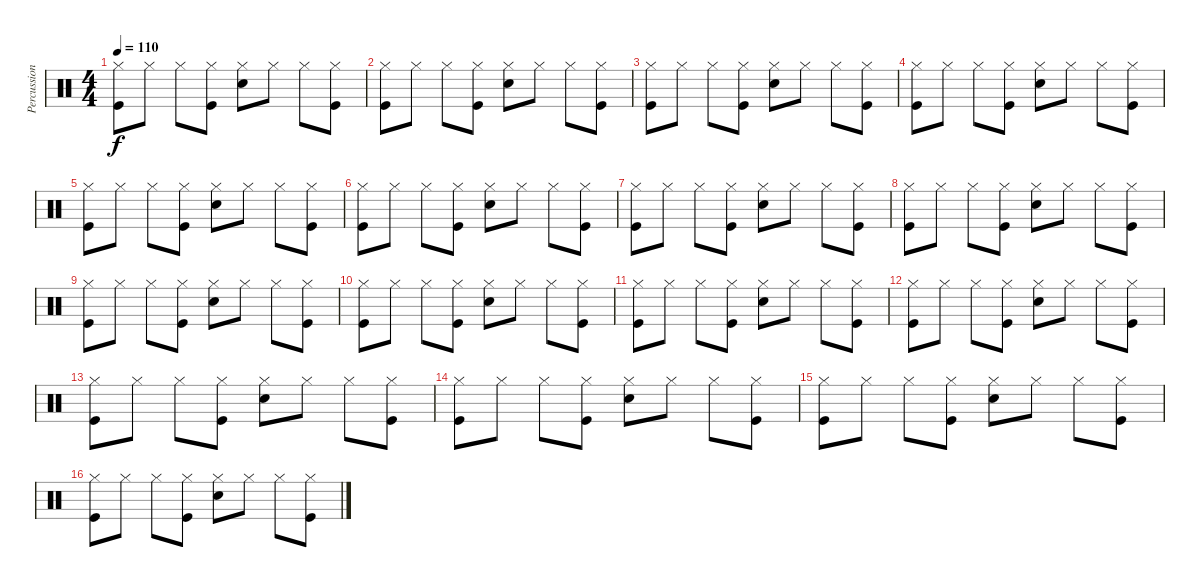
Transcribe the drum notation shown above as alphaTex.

\track ("Percussion" "Percussion") {instrument percussion}
\staff {score}
\articulation defaults
\ts (4 4)
\tempo 110
\clef neutral
\ks c
("Hi-Hat (closed)" "Kick (hit)").8{dy f} "Hi-Hat (closed)".8 "Hi-Hat (closed)".8 ("Hi-Hat (closed)" "Kick (hit)").8 ("Hi-Hat (closed)" "Snare (hit) 2").8 "Hi-Hat (closed)".8 "Hi-Hat (closed)".8 ("Hi-Hat (closed)" "Kick (hit)").8 |
("Hi-Hat (closed)" "Kick (hit)").8 "Hi-Hat (closed)".8 "Hi-Hat (closed)".8 ("Hi-Hat (closed)" "Kick (hit)").8 ("Hi-Hat (closed)" "Snare (hit) 2").8 "Hi-Hat (closed)".8 "Hi-Hat (closed)".8 ("Hi-Hat (closed)" "Kick (hit)").8 |
("Hi-Hat (closed)" "Kick (hit)").8 "Hi-Hat (closed)".8 "Hi-Hat (closed)".8 ("Hi-Hat (closed)" "Kick (hit)").8 ("Hi-Hat (closed)" "Snare (hit) 2").8 "Hi-Hat (closed)".8 "Hi-Hat (closed)".8 ("Hi-Hat (closed)" "Kick (hit)").8 |
("Hi-Hat (closed)" "Kick (hit)").8 "Hi-Hat (closed)".8 "Hi-Hat (closed)".8 ("Hi-Hat (closed)" "Kick (hit)").8 ("Hi-Hat (closed)" "Snare (hit) 2").8 "Hi-Hat (closed)".8 "Hi-Hat (closed)".8 ("Hi-Hat (closed)" "Kick (hit)").8 |
("Hi-Hat (closed)" "Kick (hit)").8 "Hi-Hat (closed)".8 "Hi-Hat (closed)".8 ("Hi-Hat (closed)" "Kick (hit)").8 ("Hi-Hat (closed)" "Snare (hit) 2").8 "Hi-Hat (closed)".8 "Hi-Hat (closed)".8 ("Hi-Hat (closed)" "Kick (hit)").8 |
("Hi-Hat (closed)" "Kick (hit)").8 "Hi-Hat (closed)".8 "Hi-Hat (closed)".8 ("Hi-Hat (closed)" "Kick (hit)").8 ("Hi-Hat (closed)" "Snare (hit) 2").8 "Hi-Hat (closed)".8 "Hi-Hat (closed)".8 ("Hi-Hat (closed)" "Kick (hit)").8 |
("Hi-Hat (closed)" "Kick (hit)").8 "Hi-Hat (closed)".8 "Hi-Hat (closed)".8 ("Hi-Hat (closed)" "Kick (hit)").8 ("Hi-Hat (closed)" "Snare (hit) 2").8 "Hi-Hat (closed)".8 "Hi-Hat (closed)".8 ("Hi-Hat (closed)" "Kick (hit)").8 |
("Hi-Hat (closed)" "Kick (hit)").8 "Hi-Hat (closed)".8 "Hi-Hat (closed)".8 ("Hi-Hat (closed)" "Kick (hit)").8 ("Hi-Hat (closed)" "Snare (hit) 2").8 "Hi-Hat (closed)".8 "Hi-Hat (closed)".8 ("Hi-Hat (closed)" "Kick (hit)").8 |
("Hi-Hat (closed)" "Kick (hit)").8 "Hi-Hat (closed)".8 "Hi-Hat (closed)".8 ("Hi-Hat (closed)" "Kick (hit)").8 ("Hi-Hat (closed)" "Snare (hit) 2").8 "Hi-Hat (closed)".8 "Hi-Hat (closed)".8 ("Hi-Hat (closed)" "Kick (hit)").8 |
("Hi-Hat (closed)" "Kick (hit)").8 "Hi-Hat (closed)".8 "Hi-Hat (closed)".8 ("Hi-Hat (closed)" "Kick (hit)").8 ("Hi-Hat (closed)" "Snare (hit) 2").8 "Hi-Hat (closed)".8 "Hi-Hat (closed)".8 ("Hi-Hat (closed)" "Kick (hit)").8 |
("Hi-Hat (closed)" "Kick (hit)").8 "Hi-Hat (closed)".8 "Hi-Hat (closed)".8 ("Hi-Hat (closed)" "Kick (hit)").8 ("Hi-Hat (closed)" "Snare (hit) 2").8 "Hi-Hat (closed)".8 "Hi-Hat (closed)".8 ("Hi-Hat (closed)" "Kick (hit)").8 |
("Hi-Hat (closed)" "Kick (hit)").8 "Hi-Hat (closed)".8 "Hi-Hat (closed)".8 ("Hi-Hat (closed)" "Kick (hit)").8 ("Hi-Hat (closed)" "Snare (hit) 2").8 "Hi-Hat (closed)".8 "Hi-Hat (closed)".8 ("Hi-Hat (closed)" "Kick (hit)").8 |
("Hi-Hat (closed)" "Kick (hit)").8 "Hi-Hat (closed)".8 "Hi-Hat (closed)".8 ("Hi-Hat (closed)" "Kick (hit)").8 ("Hi-Hat (closed)" "Snare (hit) 2").8 "Hi-Hat (closed)".8 "Hi-Hat (closed)".8 ("Hi-Hat (closed)" "Kick (hit)").8 |
("Hi-Hat (closed)" "Kick (hit)").8 "Hi-Hat (closed)".8 "Hi-Hat (closed)".8 ("Hi-Hat (closed)" "Kick (hit)").8 ("Hi-Hat (closed)" "Snare (hit) 2").8 "Hi-Hat (closed)".8 "Hi-Hat (closed)".8 ("Hi-Hat (closed)" "Kick (hit)").8 |
("Hi-Hat (closed)" "Kick (hit)").8 "Hi-Hat (closed)".8 "Hi-Hat (closed)".8 ("Hi-Hat (closed)" "Kick (hit)").8 ("Hi-Hat (closed)" "Snare (hit) 2").8 "Hi-Hat (closed)".8 "Hi-Hat (closed)".8 ("Hi-Hat (closed)" "Kick (hit)").8 |
("Hi-Hat (closed)" "Kick (hit)").8 "Hi-Hat (closed)".8 "Hi-Hat (closed)".8 ("Hi-Hat (closed)" "Kick (hit)").8 ("Hi-Hat (closed)" "Snare (hit) 2").8 "Hi-Hat (closed)".8 "Hi-Hat (closed)".8 ("Hi-Hat (closed)" "Kick (hit)").8
